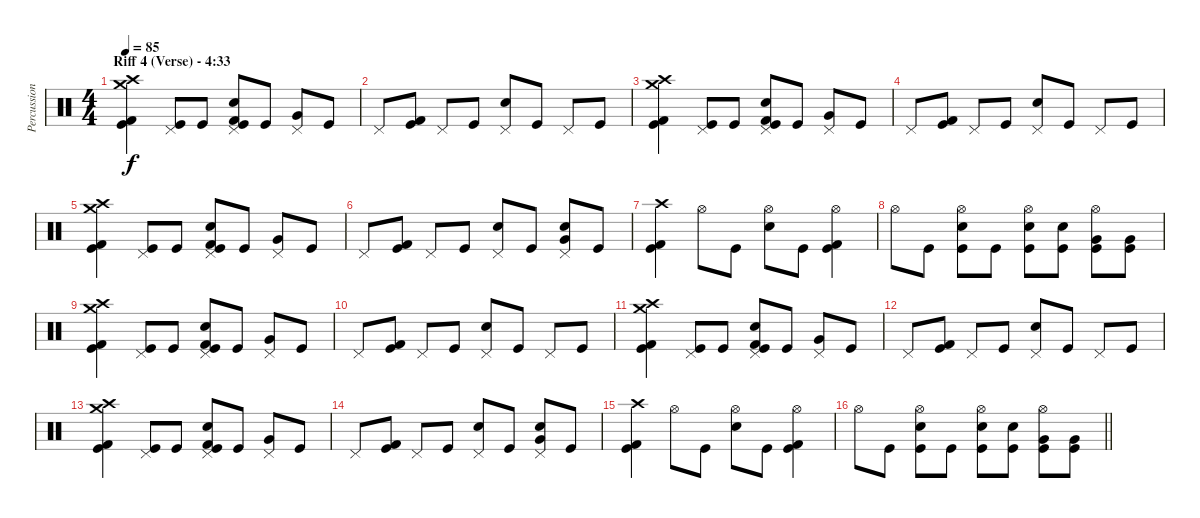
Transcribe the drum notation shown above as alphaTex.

\track ("Percussion" "Percussion") {instrument percussion}
\staff {score}
\articulation defaults
\ts (4 4)
\section ("" "Riff 4 (Verse) - 4:33")
\tempo 85
\clef neutral
\ks c
("Kick (hit)" "Kick (hit) 2" "Crash high (hit)" "Crash medium (hit)").4{dy f} ("Kick (hit)" "Pedal Hi-Hat (hit)").8 "Kick (hit)".8 ("Kick (hit)" "Kick (hit) 2" "Snare (hit) 2" "Pedal Hi-Hat (hit)").8 "Kick (hit)".8 ("Very Low Tom (hit)" "Pedal Hi-Hat (hit)").8 "Kick (hit)".8 |
"Pedal Hi-Hat (hit)".8 ("Kick (hit)" "Kick (hit) 2").8 "Pedal Hi-Hat (hit)".8 "Kick (hit)".8 ("Snare (hit) 2" "Pedal Hi-Hat (hit)").8 "Kick (hit)".8 "Pedal Hi-Hat (hit)".8 "Kick (hit)".8 |
("Kick (hit)" "Kick (hit) 2" "Crash high (hit)" "Crash medium (hit)").4 ("Kick (hit)" "Pedal Hi-Hat (hit)").8 "Kick (hit)".8 ("Kick (hit)" "Kick (hit) 2" "Snare (hit) 2" "Pedal Hi-Hat (hit)").8 "Kick (hit)".8 ("Very Low Tom (hit)" "Pedal Hi-Hat (hit)").8 "Kick (hit)".8 |
"Pedal Hi-Hat (hit)".8 ("Kick (hit)" "Kick (hit) 2").8 "Pedal Hi-Hat (hit)".8 "Kick (hit)".8 ("Snare (hit) 2" "Pedal Hi-Hat (hit)").8 "Kick (hit)".8 "Pedal Hi-Hat (hit)".8 "Kick (hit)".8 |
("Kick (hit)" "Kick (hit) 2" "Crash high (hit)" "Crash medium (hit)").4 ("Kick (hit)" "Pedal Hi-Hat (hit)").8 "Kick (hit)".8 ("Kick (hit)" "Kick (hit) 2" "Snare (hit) 2" "Pedal Hi-Hat (hit)").8 "Kick (hit)".8 ("Very Low Tom (hit)" "Pedal Hi-Hat (hit)").8 "Kick (hit)".8 |
"Pedal Hi-Hat (hit)".8 ("Kick (hit)" "Kick (hit) 2").8 "Pedal Hi-Hat (hit)".8 "Kick (hit)".8 ("Snare (hit) 2" "Pedal Hi-Hat (hit)").8 "Kick (hit)".8 ("Very Low Tom (hit)" "Snare (hit) 2" "Pedal Hi-Hat (hit)").8 "Kick (hit)".8 |
("Kick (hit)" "Kick (hit) 2" "Crash high (hit)").4 "Hi-Hat (open)".8 "Kick (hit)".8 ("Snare (hit) 2" "Hi-Hat (open)").8 "Kick (hit)".8 ("Kick (hit)" "Kick (hit) 2" "Hi-Hat (open)").4 |
"Hi-Hat (open)".8 "Kick (hit)".8 ("Kick (hit)" "Snare (hit) 2" "Hi-Hat (open)").8 "Kick (hit)".8 ("Kick (hit)" "Snare (hit) 2" "Hi-Hat (open)").8 ("Kick (hit)" "Snare (hit) 2").8 ("Kick (hit)" "Very Low Tom (hit)" "Hi-Hat (open)").8 ("Kick (hit)" "Very Low Tom (hit)").8 |
("Kick (hit)" "Kick (hit) 2" "Crash high (hit)" "Crash medium (hit)").4 ("Kick (hit)" "Pedal Hi-Hat (hit)").8 "Kick (hit)".8 ("Kick (hit)" "Kick (hit) 2" "Snare (hit) 2" "Pedal Hi-Hat (hit)").8 "Kick (hit)".8 ("Very Low Tom (hit)" "Pedal Hi-Hat (hit)").8 "Kick (hit)".8 |
"Pedal Hi-Hat (hit)".8 ("Kick (hit)" "Kick (hit) 2").8 "Pedal Hi-Hat (hit)".8 "Kick (hit)".8 ("Snare (hit) 2" "Pedal Hi-Hat (hit)").8 "Kick (hit)".8 "Pedal Hi-Hat (hit)".8 "Kick (hit)".8 |
("Kick (hit)" "Kick (hit) 2" "Crash high (hit)" "Crash medium (hit)").4 ("Kick (hit)" "Pedal Hi-Hat (hit)").8 "Kick (hit)".8 ("Kick (hit)" "Kick (hit) 2" "Snare (hit) 2" "Pedal Hi-Hat (hit)").8 "Kick (hit)".8 ("Very Low Tom (hit)" "Pedal Hi-Hat (hit)").8 "Kick (hit)".8 |
"Pedal Hi-Hat (hit)".8 ("Kick (hit)" "Kick (hit) 2").8 "Pedal Hi-Hat (hit)".8 "Kick (hit)".8 ("Snare (hit) 2" "Pedal Hi-Hat (hit)").8 "Kick (hit)".8 "Pedal Hi-Hat (hit)".8 "Kick (hit)".8 |
("Kick (hit)" "Kick (hit) 2" "Crash high (hit)" "Crash medium (hit)").4 ("Kick (hit)" "Pedal Hi-Hat (hit)").8 "Kick (hit)".8 ("Kick (hit)" "Kick (hit) 2" "Snare (hit) 2" "Pedal Hi-Hat (hit)").8 "Kick (hit)".8 ("Very Low Tom (hit)" "Pedal Hi-Hat (hit)").8 "Kick (hit)".8 |
"Pedal Hi-Hat (hit)".8 ("Kick (hit)" "Kick (hit) 2").8 "Pedal Hi-Hat (hit)".8 "Kick (hit)".8 ("Snare (hit) 2" "Pedal Hi-Hat (hit)").8 "Kick (hit)".8 ("Very Low Tom (hit)" "Snare (hit) 2" "Pedal Hi-Hat (hit)").8 "Kick (hit)".8 |
("Kick (hit)" "Kick (hit) 2" "Crash high (hit)").4 "Hi-Hat (open)".8 "Kick (hit)".8 ("Snare (hit) 2" "Hi-Hat (open)").8 "Kick (hit)".8 ("Kick (hit)" "Kick (hit) 2" "Hi-Hat (open)").4 |
\barLineRight lightlight "Hi-Hat (open)".8 "Kick (hit)".8
("Kick (hit)" "Snare (hit) 2" "Hi-Hat (open)").8 "Kick (hit)".8 ("Kick (hit)" "Snare (hit) 2" "Hi-Hat (open)").8 ("Kick (hit)" "Snare (hit) 2").8 ("Kick (hit)" "Very Low Tom (hit)" "Hi-Hat (open)").8 ("Kick (hit)" "Very Low Tom (hit)").8
